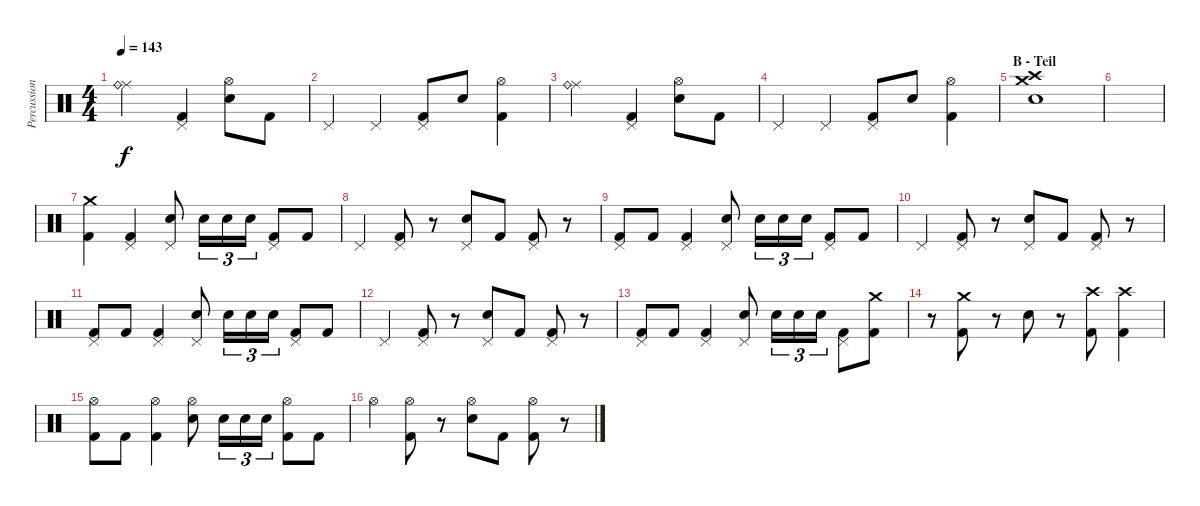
\track ("Percussion" "Percussion") {instrument percussion}
\staff {score}
\articulation defaults
\ts (4 4)
\tempo 143
\clef neutral
\ks c
("Ride (middle)" "Ride (bell)").2{dy f} ("Pedal Hi-Hat (hit)" "Kick (hit) 2").4 ("Hi-Hat (open)" "Electric Snare (hit)").8 "Kick (hit) 2".8 |
"Pedal Hi-Hat (hit)".4 "Pedal Hi-Hat (hit)".4 ("Pedal Hi-Hat (hit)" "Kick (hit) 2").8 "Electric Snare (hit)".8 ("Hi-Hat (open)" "Kick (hit) 2").4 |
("Ride (middle)" "Ride (bell)").2 ("Pedal Hi-Hat (hit)" "Kick (hit) 2").4 ("Hi-Hat (open)" "Electric Snare (hit)").8 "Kick (hit) 2".8 |
"Pedal Hi-Hat (hit)".4 "Pedal Hi-Hat (hit)".4 ("Pedal Hi-Hat (hit)" "Kick (hit) 2").8 "Electric Snare (hit)".8 ("Hi-Hat (open)" "Kick (hit) 2").4 |
\section ("" "B - Teil")
("Crash medium (hit)" "Crash high (hit)" "Electric Snare (hit)").1 |
|
("Crash medium (hit)" "Kick (hit) 2").4 ("Pedal Hi-Hat (hit)" "Kick (hit) 2").4 ("Pedal Hi-Hat (hit)" "Electric Snare (hit)").8 "Electric Snare (hit)".16{tu (3 2)} "Electric Snare (hit)".16{tu (3 2)} "Electric Snare (hit)".16{tu (3 2)} ("Pedal Hi-Hat (hit)" "Kick (hit) 2").8 "Kick (hit) 2".8 |
"Pedal Hi-Hat (hit)".4 ("Pedal Hi-Hat (hit)" "Kick (hit) 2").8 r.8 ("Pedal Hi-Hat (hit)" "Electric Snare (hit)").8 "Kick (hit) 2".8 ("Pedal Hi-Hat (hit)" "Kick (hit) 2").8 r.8 |
("Pedal Hi-Hat (hit)" "Kick (hit) 2").8 "Kick (hit) 2".8 ("Pedal Hi-Hat (hit)" "Kick (hit) 2").4 ("Pedal Hi-Hat (hit)" "Electric Snare (hit)").8 "Electric Snare (hit)".16{tu (3 2)} "Electric Snare (hit)".16{tu (3 2)} "Electric Snare (hit)".16{tu (3 2)} ("Pedal Hi-Hat (hit)" "Kick (hit) 2").8 "Kick (hit) 2".8 |
"Pedal Hi-Hat (hit)".4 ("Pedal Hi-Hat (hit)" "Kick (hit) 2").8 r.8 ("Pedal Hi-Hat (hit)" "Electric Snare (hit)").8 "Kick (hit) 2".8 ("Pedal Hi-Hat (hit)" "Kick (hit) 2").8 r.8 |
("Pedal Hi-Hat (hit)" "Kick (hit) 2").8 "Kick (hit) 2".8 ("Pedal Hi-Hat (hit)" "Kick (hit) 2").4 ("Pedal Hi-Hat (hit)" "Electric Snare (hit)").8 "Electric Snare (hit)".16{tu (3 2)} "Electric Snare (hit)".16{tu (3 2)} "Electric Snare (hit)".16{tu (3 2)} ("Pedal Hi-Hat (hit)" "Kick (hit) 2").8 "Kick (hit) 2".8 |
"Pedal Hi-Hat (hit)".4 ("Pedal Hi-Hat (hit)" "Kick (hit) 2").8 r.8 ("Pedal Hi-Hat (hit)" "Electric Snare (hit)").8 "Kick (hit) 2".8 ("Pedal Hi-Hat (hit)" "Kick (hit) 2").8 r.8 |
("Pedal Hi-Hat (hit)" "Kick (hit) 2").8 "Kick (hit) 2".8 ("Pedal Hi-Hat (hit)" "Kick (hit) 2").4 ("Pedal Hi-Hat (hit)" "Electric Snare (hit)").8 "Electric Snare (hit)".16{tu (3 2)} "Electric Snare (hit)".16{tu (3 2)} "Electric Snare (hit)".16{tu (3 2)} ("Pedal Hi-Hat (hit)" "Kick (hit) 2").8 ("Crash medium (hit)" "Kick (hit) 2").8 |
r.8 ("Crash medium (hit)" "Kick (hit) 2").8 r.8 "Electric Snare (hit)".8 r.8 ("Crash high (hit)" "Kick (hit) 2").8 ("Crash high (hit)" "Kick (hit) 2").4 |
("Hi-Hat (open)" "Kick (hit) 2").8 "Kick (hit) 2".8 ("Hi-Hat (open)" "Kick (hit) 2").4 ("Hi-Hat (open)" "Electric Snare (hit)").8 "Electric Snare (hit)".16{tu (3 2)} "Electric Snare (hit)".16{tu (3 2)} "Electric Snare (hit)".16{tu (3 2)} ("Hi-Hat (open)" "Kick (hit) 2").8 "Kick (hit) 2".8 |
"Hi-Hat (open)".4 ("Hi-Hat (open)" "Kick (hit) 2").8 r.8 ("Hi-Hat (open)" "Electric Snare (hit)").8 "Kick (hit) 2".8 ("Hi-Hat (open)" "Kick (hit) 2").8 r.8
